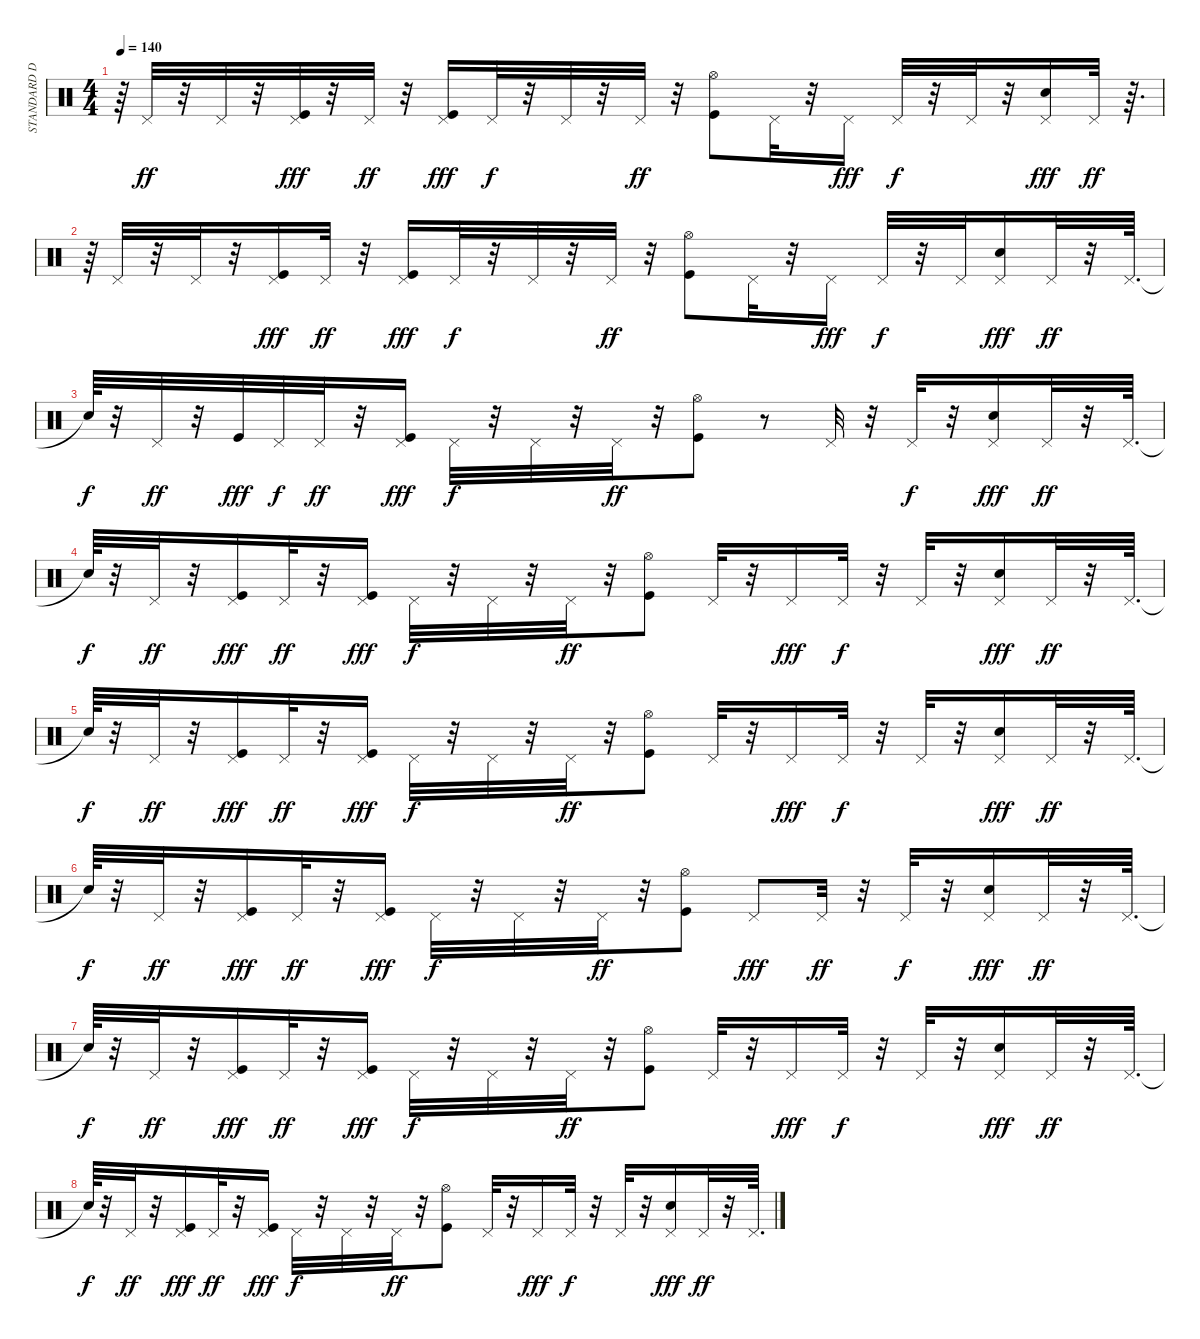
\track ("STANDARD DRUMS" "STANDARD D") {instrument percussion}
\staff {score}
\articulation defaults
\ts (4 4)
\tempo 140
\clef neutral
\ks c
r.64{dy ff} "Pedal Hi-Hat (hit)".32 r.32 "Pedal Hi-Hat (hit)".32 r.32 ("Kick (hit)" "Pedal Hi-Hat (hit)").32{dy fff} r.32 "Pedal Hi-Hat (hit)".32{dy ff} r.32 ("Kick (hit)" "Pedal Hi-Hat (hit)").16{dy fff} "Pedal Hi-Hat (hit)".32{dy f} r.32 "Pedal Hi-Hat (hit)".32 r.32 "Pedal Hi-Hat (hit)".32{dy ff} r.32 ("Kick (hit)" "Hi-Hat (open)").8 "Pedal Hi-Hat (hit)".32 r.32 "Pedal Hi-Hat (hit)".16{dy fff} "Pedal Hi-Hat (hit)".32{dy f} r.32 "Pedal Hi-Hat (hit)".32 r.32 ("Snare (hit) 2" "Pedal Hi-Hat (hit)").16{dy fff} "Pedal Hi-Hat (hit)".32{dy ff} r.64{d} |
r.64 "Pedal Hi-Hat (hit)".32 r.32 "Pedal Hi-Hat (hit)".32 r.32 ("Kick (hit)" "Pedal Hi-Hat (hit)").16{dy fff} "Pedal Hi-Hat (hit)".32{dy ff} r.32 ("Kick (hit)" "Pedal Hi-Hat (hit)").16{dy fff} "Pedal Hi-Hat (hit)".32{dy f} r.32 "Pedal Hi-Hat (hit)".32 r.32 "Pedal Hi-Hat (hit)".32{dy ff} r.32 ("Kick (hit)" "Hi-Hat (open)").8 "Pedal Hi-Hat (hit)".32 r.32 "Pedal Hi-Hat (hit)".16{dy fff} "Pedal Hi-Hat (hit)".32{dy f} r.32 "Pedal Hi-Hat (hit)".32 ("Snare (hit) 2" "Pedal Hi-Hat (hit)").16{dy fff} "Pedal Hi-Hat (hit)".32{dy ff} r.32 "Pedal Hi-Hat (hit)".64{d} |
"Snare (hit)"{t}.64{dy f} r.32 "Pedal Hi-Hat (hit)".32{dy ff} r.32 "Kick (hit)".32{dy fff} "Pedal Hi-Hat (hit)".32{dy f} "Pedal Hi-Hat (hit)".32{dy ff} r.32 ("Kick (hit)" "Pedal Hi-Hat (hit)").16{dy fff} "Pedal Hi-Hat (hit)".32{dy f} r.32 "Pedal Hi-Hat (hit)".32 r.32 "Pedal Hi-Hat (hit)".32{dy ff} r.32 ("Kick (hit)" "Hi-Hat (open)").8 r.8 "Pedal Hi-Hat (hit)".32 r.32 "Pedal Hi-Hat (hit)".32{dy f} r.32 ("Snare (hit) 2" "Pedal Hi-Hat (hit)").16{dy fff} "Pedal Hi-Hat (hit)".32{dy ff} r.32 "Pedal Hi-Hat (hit)".64{d} |
"Snare (hit)"{t}.64{dy f} r.32 "Pedal Hi-Hat (hit)".32{dy ff} r.32 ("Kick (hit)" "Pedal Hi-Hat (hit)").16{dy fff} "Pedal Hi-Hat (hit)".32{dy ff} r.32 ("Kick (hit)" "Pedal Hi-Hat (hit)").16{dy fff} "Pedal Hi-Hat (hit)".32{dy f} r.32 "Pedal Hi-Hat (hit)".32 r.32 "Pedal Hi-Hat (hit)".32{dy ff} r.32 ("Kick (hit)" "Hi-Hat (open)").8 "Pedal Hi-Hat (hit)".32 r.32 "Pedal Hi-Hat (hit)".16{dy fff} "Pedal Hi-Hat (hit)".32{dy f} r.32 "Pedal Hi-Hat (hit)".32 r.32 ("Snare (hit) 2" "Pedal Hi-Hat (hit)").16{dy fff} "Pedal Hi-Hat (hit)".32{dy ff} r.32 "Pedal Hi-Hat (hit)".64{d} |
"Snare (hit)"{t}.64{dy f} r.32 "Pedal Hi-Hat (hit)".32{dy ff} r.32 ("Kick (hit)" "Pedal Hi-Hat (hit)").16{dy fff} "Pedal Hi-Hat (hit)".32{dy ff} r.32 ("Kick (hit)" "Pedal Hi-Hat (hit)").16{dy fff} "Pedal Hi-Hat (hit)".32{dy f} r.32 "Pedal Hi-Hat (hit)".32 r.32 "Pedal Hi-Hat (hit)".32{dy ff} r.32 ("Kick (hit)" "Hi-Hat (open)").8 "Pedal Hi-Hat (hit)".32 r.32 "Pedal Hi-Hat (hit)".16{dy fff} "Pedal Hi-Hat (hit)".32{dy f} r.32 "Pedal Hi-Hat (hit)".32 r.32 ("Snare (hit) 2" "Pedal Hi-Hat (hit)").16{dy fff} "Pedal Hi-Hat (hit)".32{dy ff} r.32 "Pedal Hi-Hat (hit)".64{d} |
"Snare (hit)"{t}.64{dy f} r.32 "Pedal Hi-Hat (hit)".32{dy ff} r.32 ("Kick (hit)" "Pedal Hi-Hat (hit)").16{dy fff} "Pedal Hi-Hat (hit)".32{dy ff} r.32 ("Kick (hit)" "Pedal Hi-Hat (hit)").16{dy fff} "Pedal Hi-Hat (hit)".32{dy f} r.32 "Pedal Hi-Hat (hit)".32 r.32 "Pedal Hi-Hat (hit)".32{dy ff} r.32 ("Kick (hit)" "Hi-Hat (open)").8 "Pedal Hi-Hat (hit)".8{dy fff} "Pedal Hi-Hat (hit)".32{dy ff} r.32 "Pedal Hi-Hat (hit)".32{dy f} r.32 ("Snare (hit) 2" "Pedal Hi-Hat (hit)").16{dy fff} "Pedal Hi-Hat (hit)".32{dy ff} r.32 "Pedal Hi-Hat (hit)".64{d} |
"Snare (hit)"{t}.64{dy f} r.32 "Pedal Hi-Hat (hit)".32{dy ff} r.32 ("Kick (hit)" "Pedal Hi-Hat (hit)").16{dy fff} "Pedal Hi-Hat (hit)".32{dy ff} r.32 ("Kick (hit)" "Pedal Hi-Hat (hit)").16{dy fff} "Pedal Hi-Hat (hit)".32{dy f} r.32 "Pedal Hi-Hat (hit)".32 r.32 "Pedal Hi-Hat (hit)".32{dy ff} r.32 ("Kick (hit)" "Hi-Hat (open)").8 "Pedal Hi-Hat (hit)".32 r.32 "Pedal Hi-Hat (hit)".16{dy fff} "Pedal Hi-Hat (hit)".32{dy f} r.32 "Pedal Hi-Hat (hit)".32 r.32 ("Snare (hit) 2" "Pedal Hi-Hat (hit)").16{dy fff} "Pedal Hi-Hat (hit)".32{dy ff} r.32 "Pedal Hi-Hat (hit)".64{d} |
"Snare (hit)"{t}.64{dy f} r.32 "Pedal Hi-Hat (hit)".32{dy ff} r.32 ("Kick (hit)" "Pedal Hi-Hat (hit)").16{dy fff} "Pedal Hi-Hat (hit)".32{dy ff} r.32 ("Kick (hit)" "Pedal Hi-Hat (hit)").16{dy fff} "Pedal Hi-Hat (hit)".32{dy f} r.32 "Pedal Hi-Hat (hit)".32 r.32 "Pedal Hi-Hat (hit)".32{dy ff} r.32 ("Kick (hit)" "Hi-Hat (open)").8 "Pedal Hi-Hat (hit)".32 r.32 "Pedal Hi-Hat (hit)".16{dy fff} "Pedal Hi-Hat (hit)".32{dy f} r.32 "Pedal Hi-Hat (hit)".32 r.32 ("Snare (hit) 2" "Pedal Hi-Hat (hit)").16{dy fff} "Pedal Hi-Hat (hit)".32{dy ff} r.32 "Pedal Hi-Hat (hit)".64{d}
